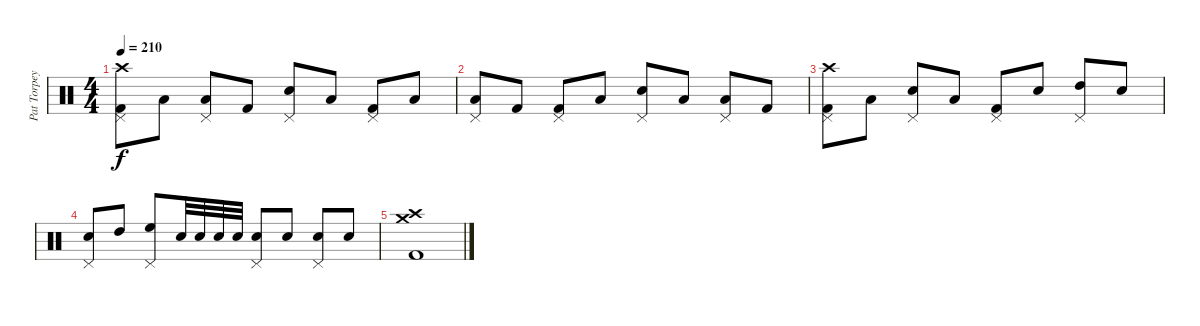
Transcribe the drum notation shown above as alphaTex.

\track ("Pat Torpey" "Pat Torpey") {instrument percussion}
\staff {score}
\articulation defaults
\ts (4 4)
\tempo 210
\clef neutral
\ks c
("Crash high (hit)" "Pedal Hi-Hat (hit)" "Kick (hit) 2").8{dy f} "Low Floor Tom (hit)".8 ("Pedal Hi-Hat (hit)" "Low Floor Tom (hit)").8 "Kick (hit) 2".8 ("Pedal Hi-Hat (hit)" "Snare (hit) 2").8 "Low Floor Tom (hit)".8 ("Pedal Hi-Hat (hit)" "Kick (hit) 2").8 "Low Floor Tom (hit)".8 |
("Pedal Hi-Hat (hit)" "Low Floor Tom (hit)").8 "Kick (hit) 2".8 ("Pedal Hi-Hat (hit)" "Kick (hit) 2").8 "Low Floor Tom (hit)".8 ("Pedal Hi-Hat (hit)" "Snare (hit) 2").8 "Low Floor Tom (hit)".8 ("Pedal Hi-Hat (hit)" "Low Floor Tom (hit)").8 "Kick (hit) 2".8 |
("Crash high (hit)" "Pedal Hi-Hat (hit)" "Kick (hit) 2").8 "Low Floor Tom (hit)".8 ("Pedal Hi-Hat (hit)" "Snare (hit) 2").8 "Low Floor Tom (hit)".8 ("Pedal Hi-Hat (hit)" "Kick (hit) 2").8 "Snare (hit) 2".8 ("Pedal Hi-Hat (hit)" "High Tom (hit)").8 "Snare (hit) 2".8 |
("Pedal Hi-Hat (hit)" "Snare (hit) 2").8 "High Tom (hit)".8 ("Pedal Hi-Hat (hit)" "High Floor Tom (hit)").8 "Snare (hit) 2".32 "Snare (hit) 2".32 "Snare (hit) 2".32 "Snare (hit) 2".32 ("Pedal Hi-Hat (hit)" "Snare (hit) 2").8 "Snare (hit) 2".8 ("Pedal Hi-Hat (hit)" "Snare (hit) 2").8 "Snare (hit) 2".8 |
("Crash high (hit)" "Crash medium (hit)" "Kick (hit) 2").1
